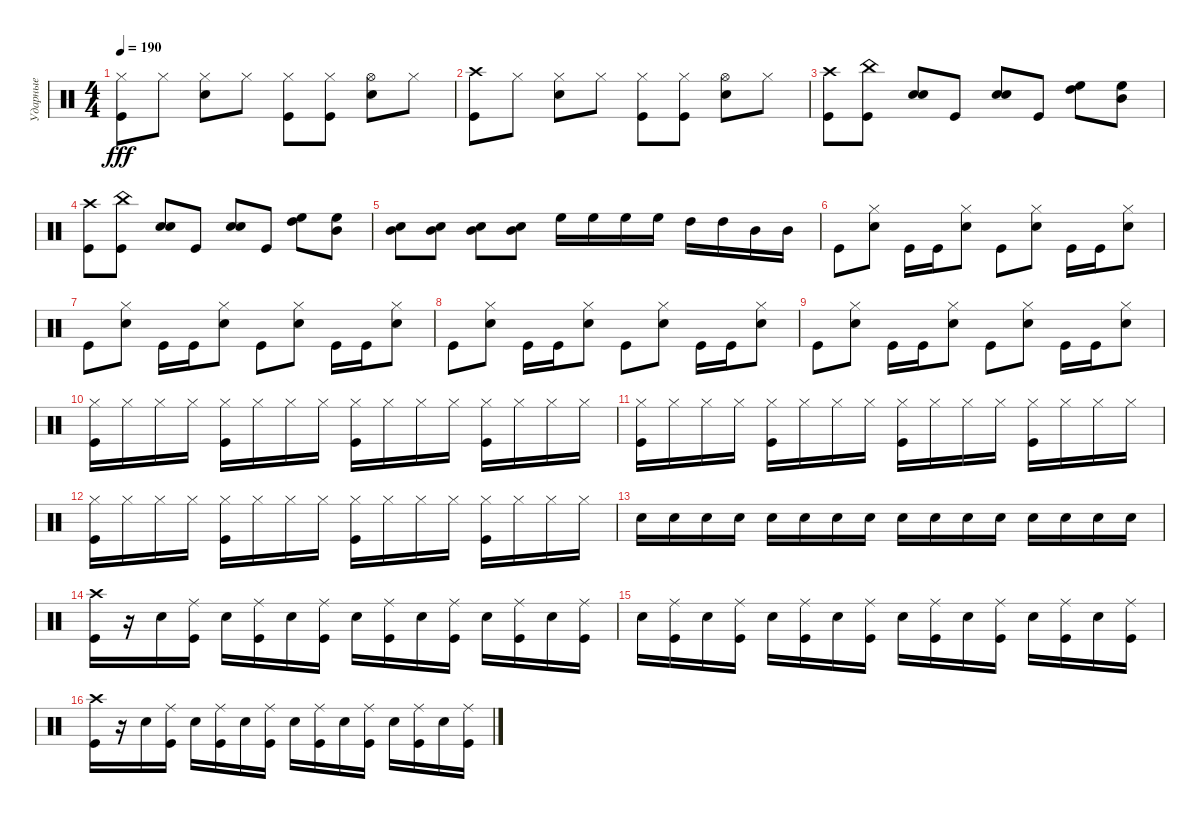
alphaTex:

\track ("Ударные" "Ударные") {instrument percussion}
\staff {score}
\articulation defaults
\ts (4 4)
\tempo 190
\clef neutral
\ks c
("Hi-Hat (closed)" "Kick (hit)").8{dy fff} "Hi-Hat (closed)".8 ("Hi-Hat (closed)" "Snare (hit) 2").8 "Hi-Hat (closed)".8 ("Hi-Hat (closed)" "Kick (hit)").8 ("Hi-Hat (closed)" "Kick (hit)").8 ("Hi-Hat (open)" "Snare (hit) 2").8 "Hi-Hat (closed)".8 |
("Crash high (hit)" "Kick (hit)").8 "Hi-Hat (closed)".8 ("Hi-Hat (closed)" "Snare (hit) 2").8 "Hi-Hat (closed)".8 ("Hi-Hat (closed)" "Kick (hit)").8 ("Hi-Hat (closed)" "Kick (hit)").8 ("Hi-Hat (open)" "Snare (hit) 2").8 "Hi-Hat (closed)".8 |
("Kick (hit)" "Crash high (hit)").8 ("Kick (hit)" "China (hit)").8 ("Snare (hit) 2" "Snare (hit) 2").8 "Kick (hit)".8 ("Snare (hit) 2" "Snare (hit) 2").8 "Kick (hit)".8 ("High Floor Tom (hit)" "High Tom (hit)").8 ("Mid Tom (hit)" "High Floor Tom (hit)").8 |
("Kick (hit)" "Crash high (hit)").8 ("Kick (hit)" "China (hit)").8 ("Snare (hit) 2" "Snare (hit) 2").8 "Kick (hit)".8 ("Snare (hit) 2" "Snare (hit) 2").8 "Kick (hit)".8 ("High Floor Tom (hit)" "High Tom (hit)").8 ("Mid Tom (hit)" "High Floor Tom (hit)").8 |
("Snare (hit) 2" "Mid Tom (hit)").8 ("Snare (hit) 2" "Mid Tom (hit)").8 ("Snare (hit) 2" "Mid Tom (hit)").8 ("Snare (hit) 2" "Mid Tom (hit)").8 "High Floor Tom (hit)".16 "High Floor Tom (hit)".16 "High Floor Tom (hit)".16 "High Floor Tom (hit)".16 "High Tom (hit)".16 "High Tom (hit)".16 "Mid Tom (hit)".16 "Mid Tom (hit)".16 |
"Kick (hit)".8 ("Snare (hit) 2" "Hi-Hat (closed)").8 "Kick (hit)".16 "Kick (hit)".16 ("Snare (hit) 2" "Hi-Hat (closed)").8 "Kick (hit)".8 ("Snare (hit) 2" "Hi-Hat (closed)").8 "Kick (hit)".16 "Kick (hit)".16 ("Snare (hit) 2" "Hi-Hat (closed)").8 |
"Kick (hit)".8 ("Snare (hit) 2" "Hi-Hat (closed)").8 "Kick (hit)".16 "Kick (hit)".16 ("Snare (hit) 2" "Hi-Hat (closed)").8 "Kick (hit)".8 ("Snare (hit) 2" "Hi-Hat (closed)").8 "Kick (hit)".16 "Kick (hit)".16 ("Snare (hit) 2" "Hi-Hat (closed)").8 |
"Kick (hit)".8 ("Snare (hit) 2" "Hi-Hat (closed)").8 "Kick (hit)".16 "Kick (hit)".16 ("Snare (hit) 2" "Hi-Hat (closed)").8 "Kick (hit)".8 ("Snare (hit) 2" "Hi-Hat (closed)").8 "Kick (hit)".16 "Kick (hit)".16 ("Snare (hit) 2" "Hi-Hat (closed)").8 |
"Kick (hit)".8 ("Snare (hit) 2" "Hi-Hat (closed)").8 "Kick (hit)".16 "Kick (hit)".16 ("Snare (hit) 2" "Hi-Hat (closed)").8 "Kick (hit)".8 ("Snare (hit) 2" "Hi-Hat (closed)").8 "Kick (hit)".16 "Kick (hit)".16 ("Snare (hit) 2" "Hi-Hat (closed)").8 |
("Hi-Hat (closed)" "Kick (hit)").16 "Hi-Hat (closed)".16 "Hi-Hat (closed)".16 "Hi-Hat (closed)".16 ("Hi-Hat (closed)" "Kick (hit)").16 "Hi-Hat (closed)".16 "Hi-Hat (closed)".16 "Hi-Hat (closed)".16 ("Hi-Hat (closed)" "Kick (hit)").16 "Hi-Hat (closed)".16 "Hi-Hat (closed)".16 "Hi-Hat (closed)".16 ("Hi-Hat (closed)" "Kick (hit)").16 "Hi-Hat (closed)".16 "Hi-Hat (closed)".16 "Hi-Hat (closed)".16 |
("Hi-Hat (closed)" "Kick (hit)").16 "Hi-Hat (closed)".16 "Hi-Hat (closed)".16 "Hi-Hat (closed)".16 ("Hi-Hat (closed)" "Kick (hit)").16 "Hi-Hat (closed)".16 "Hi-Hat (closed)".16 "Hi-Hat (closed)".16 ("Hi-Hat (closed)" "Kick (hit)").16 "Hi-Hat (closed)".16 "Hi-Hat (closed)".16 "Hi-Hat (closed)".16 ("Hi-Hat (closed)" "Kick (hit)").16 "Hi-Hat (closed)".16 "Hi-Hat (closed)".16 "Hi-Hat (closed)".16 |
("Hi-Hat (closed)" "Kick (hit)").16 "Hi-Hat (closed)".16 "Hi-Hat (closed)".16 "Hi-Hat (closed)".16 ("Hi-Hat (closed)" "Kick (hit)").16 "Hi-Hat (closed)".16 "Hi-Hat (closed)".16 "Hi-Hat (closed)".16 ("Hi-Hat (closed)" "Kick (hit)").16 "Hi-Hat (closed)".16 "Hi-Hat (closed)".16 "Hi-Hat (closed)".16 ("Hi-Hat (closed)" "Kick (hit)").16 "Hi-Hat (closed)".16 "Hi-Hat (closed)".16 "Hi-Hat (closed)".16 |
"Snare (hit) 2".16 "Snare (hit) 2".16 "Snare (hit) 2".16 "Snare (hit) 2".16 "Snare (hit) 2".16 "Snare (hit) 2".16 "Snare (hit) 2".16 "Snare (hit) 2".16 "Snare (hit) 2".16 "Snare (hit) 2".16 "Snare (hit) 2".16 "Snare (hit) 2".16 "Snare (hit) 2".16 "Snare (hit) 2".16 "Snare (hit) 2".16 "Snare (hit) 2".16 |
("Kick (hit)" "Crash high (hit)").16 r.16 "Snare (hit) 2".16 ("Kick (hit)" "Ride (middle)").16 "Snare (hit) 2".16 ("Kick (hit)" "Ride (middle)").16 "Snare (hit) 2".16 ("Kick (hit)" "Ride (middle)").16 "Snare (hit) 2".16 ("Kick (hit)" "Ride (middle)").16 "Snare (hit) 2".16 ("Kick (hit)" "Ride (middle)").16 "Snare (hit) 2".16 ("Kick (hit)" "Ride (middle)").16 "Snare (hit) 2".16 ("Kick (hit)" "Ride (middle)").16 |
"Snare (hit) 2".16 ("Kick (hit)" "Ride (middle)").16 "Snare (hit) 2".16 ("Kick (hit)" "Ride (middle)").16 "Snare (hit) 2".16 ("Kick (hit)" "Ride (middle)").16 "Snare (hit) 2".16 ("Kick (hit)" "Ride (middle)").16 "Snare (hit) 2".16 ("Kick (hit)" "Ride (middle)").16 "Snare (hit) 2".16 ("Kick (hit)" "Ride (middle)").16 "Snare (hit) 2".16 ("Kick (hit)" "Ride (middle)").16 "Snare (hit) 2".16 ("Kick (hit)" "Ride (middle)").16 |
("Kick (hit)" "Crash high (hit)").16 r.16 "Snare (hit) 2".16 ("Kick (hit)" "Ride (middle)").16 "Snare (hit) 2".16 ("Kick (hit)" "Ride (middle)").16 "Snare (hit) 2".16 ("Kick (hit)" "Ride (middle)").16 "Snare (hit) 2".16 ("Kick (hit)" "Ride (middle)").16 "Snare (hit) 2".16 ("Kick (hit)" "Ride (middle)").16 "Snare (hit) 2".16 ("Kick (hit)" "Ride (middle)").16 "Snare (hit) 2".16 ("Kick (hit)" "Ride (middle)").16
